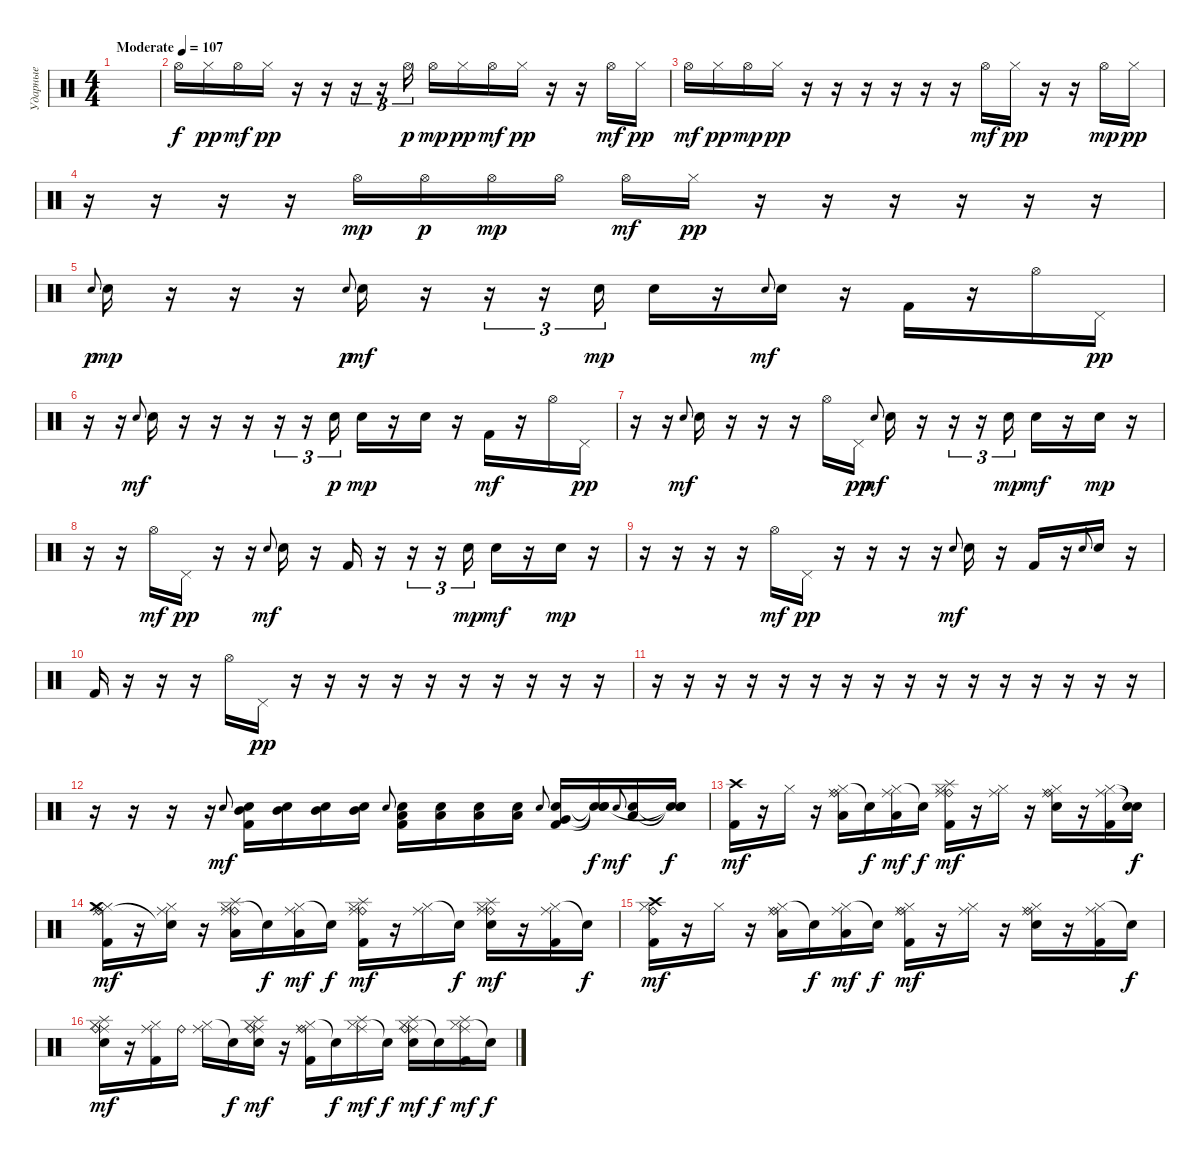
\track ("Ударные" "Ударные") {instrument percussion}
\staff {score}
\articulation defaults
\ts (4 4)
\tempo (107 "Moderate")
\clef neutral
\ks c
|
"Hi-Hat (open)".16 "Hi-Hat (closed)".16{dy pp} "Hi-Hat (open)".16{dy mf} "Hi-Hat (closed)".16{dy pp} r.16 r.16 r.16{tu (3 2)} r.16{tu (3 2)} "Hi-Hat (open)".16{tu (3 2) dy p} "Hi-Hat (open)".16{dy mp} "Hi-Hat (closed)".16{dy pp} "Hi-Hat (open)".16{dy mf} "Hi-Hat (closed)".16{dy pp} r.16 r.16 "Hi-Hat (open)".16{dy mf} "Hi-Hat (closed)".16{dy pp} |
"Hi-Hat (open)".16{dy mf} "Hi-Hat (closed)".16{dy pp} "Hi-Hat (open)".16{dy mp} "Hi-Hat (closed)".16{dy pp} r.16 r.16 r.16 r.16 r.16 r.16 "Hi-Hat (open)".16{dy mf} "Hi-Hat (closed)".16{dy pp} r.16 r.16 "Hi-Hat (open)".16{dy mp} "Hi-Hat (closed)".16{dy pp} |
r.16 r.16 r.16 r.16 "Hi-Hat (open)".16{dy mp} "Hi-Hat (open)".16{dy p} "Hi-Hat (open)".16{dy mp} "Hi-Hat (open)".16 "Hi-Hat (open)".16{dy mf} "Hi-Hat (closed)".16{dy pp} r.16 r.16 r.16 r.16 r.16 r.16 |
"Electric Snare (hit)".8{gr onbeat dy p} "Electric Snare (hit)".16{dy mp} r.16 r.16 r.16 "Electric Snare (hit)".8{gr onbeat dy p} "Electric Snare (hit)".16{dy mf} r.16 r.16{tu (3 2)} r.16{tu (3 2)} "Electric Snare (hit)".16{tu (3 2) dy mp} "Electric Snare (hit)".16 r.16 "Electric Snare (hit)".8{gr onbeat dy mf} "Electric Snare (hit)".16 r.16 "Kick (hit) 2".16 r.16 "Hi-Hat (open)".16 "Pedal Hi-Hat (hit)".16{dy pp} |
r.16 r.16 "Electric Snare (hit)".8{gr onbeat dy mf} "Electric Snare (hit)".16 r.16 r.16 r.16 r.16{tu (3 2)} r.16{tu (3 2)} "Electric Snare (hit)".16{tu (3 2) dy p} "Electric Snare (hit)".16{dy mp} r.16 "Electric Snare (hit)".16 r.16 "Kick (hit) 2".16{dy mf} r.16 "Hi-Hat (open)".16 "Pedal Hi-Hat (hit)".16{dy pp} |
r.16 r.16 "Electric Snare (hit)".8{gr onbeat dy mf} "Electric Snare (hit)".16 r.16 r.16 r.16 "Hi-Hat (open)".16 "Pedal Hi-Hat (hit)".16{dy pp} "Electric Snare (hit)".8{gr onbeat dy mf} "Electric Snare (hit)".16 r.16 r.16{tu (3 2)} r.16{tu (3 2)} "Electric Snare (hit)".16{tu (3 2) dy mp} "Electric Snare (hit)".16{dy mf} r.16 "Electric Snare (hit)".16{dy mp} r.16 |
r.16 r.16 "Hi-Hat (open)".16{dy mf} "Pedal Hi-Hat (hit)".16{dy pp} r.16 r.16 "Electric Snare (hit)".8{gr onbeat dy mf} "Electric Snare (hit)".16 r.16 "Kick (hit) 2".16 r.16 r.16{tu (3 2)} r.16{tu (3 2)} "Electric Snare (hit)".16{tu (3 2) dy mp} "Electric Snare (hit)".16{dy mf} r.16 "Electric Snare (hit)".16{dy mp} r.16 |
r.16 r.16 r.16 r.16 "Hi-Hat (open)".16{dy mf} "Pedal Hi-Hat (hit)".16{dy pp} r.16 r.16 r.16 r.16 "Electric Snare (hit)".8{gr onbeat dy mf} "Electric Snare (hit)".16 r.16 "Kick (hit) 2".16 r.16 "Electric Snare (hit)".8{gr onbeat} "Electric Snare (hit)".16 r.16 |
"Kick (hit) 2".16 r.16 r.16 r.16 "Hi-Hat (open)".16 "Pedal Hi-Hat (hit)".16{dy pp} r.16 r.16 r.16 r.16 r.16 r.16 r.16 r.16 r.16 r.16 |
r.16 r.16 r.16 r.16 r.16 r.16 r.16 r.16 r.16 r.16 r.16 r.16 r.16 r.16 r.16 r.16 |
r.16 r.16 r.16 r.16 "Electric Snare (hit)".8{gr onbeat dy mf} ("Electric Snare (hit)" "Mid Tom (hit)" "Kick (hit) 2").16 ("Electric Snare (hit)" "Mid Tom (hit)").16 ("Electric Snare (hit)" "Mid Tom (hit)").16 ("Electric Snare (hit)" "Mid Tom (hit)").16 "Electric Snare (hit)".8{gr onbeat} ("Electric Snare (hit)" "Low Tom (hit)" "Kick (hit) 2").16 ("Electric Snare (hit)" "Low Tom (hit)").16 ("Electric Snare (hit)" "Low Tom (hit)").16 ("Electric Snare (hit)" "Low Tom (hit)").16 "Electric Snare (hit)".8{gr onbeat} ("Electric Snare (hit)" "Very Low Tom (hit)" "Kick (hit) 2").16 ("Snare (hit)"{t} "Snare (hit)"{t} "Snare (hit)"{t}).16{dy f} "Electric Snare (hit)".8{gr onbeat dy mf} ("Electric Snare (hit)" "Low Floor Tom (hit)").16 ("Snare (hit)"{t} "Snare (hit)"{t} "Snare (hit)"{t}).16{dy f} |
("Crash high (hit)" "Kick (hit) 2").16{dy mf} r.16 "Hi-Hat (closed)".16 r.16 ("Hi-Hat (closed)" "Ride (bell)" "Low Tom (hit)" "Ride (middle)").16 "Snare (hit)"{t}.16{dy f} ("Hi-Hat (closed)" "Low Tom (hit)" "Ride (middle)").16{dy mf} "Snare (hit)"{t}.16{dy f} ("Hi-Hat (closed)" "Ride (bell)" "Splash (hit)" "Ride (middle)" "Kick (hit) 2").16{dy mf} r.16 ("Hi-Hat (closed)" "Ride (middle)").16 r.16 ("Hi-Hat (closed)" "Ride (bell)" "Electric Snare (hit)" "Ride (middle)").16 r.16 ("Hi-Hat (closed)" "Ride (middle)" "Kick (hit) 2").16 ("Snare (hit)"{t} "Snare (hit)"{t}).16{dy f} |
("Hi-Hat (closed)" "Ride (bell)" "Ride (middle)" "Crash medium (hit)" "Kick (hit) 2").16{dy mf} r.16 ("Hi-Hat (closed)" "Ride (middle)" "Snare (hit)"{t}).16 r.16 ("Hi-Hat (closed)" "Ride (bell)" "Low Tom (hit)" "Ride (middle)" "Splash (hit)").16 "Snare (hit)"{t}.16{dy f} ("Hi-Hat (closed)" "Low Tom (hit)" "Ride (middle)").16{dy mf} "Snare (hit)"{t}.16{dy f} ("Hi-Hat (closed)" "Ride (bell)" "Splash (hit)" "Ride (middle)" "Kick (hit) 2").16{dy mf} r.16 ("Hi-Hat (closed)" "Ride (middle)").16 "Snare (hit)"{t}.16{dy f} ("Hi-Hat (closed)" "Ride (bell)" "Electric Snare (hit)" "Ride (middle)" "Splash (hit)").16{dy mf} r.16 ("Hi-Hat (closed)" "Ride (middle)" "Kick (hit) 2").16 "Snare (hit)"{t}.16{dy f} |
("Hi-Hat (closed)" "Ride (bell)" "Crash high (hit)" "Kick (hit) 2").16{dy mf} r.16 "Hi-Hat (closed)".16 r.16 ("Hi-Hat (closed)" "Ride (bell)" "Low Tom (hit)" "Ride (middle)").16 "Snare (hit)"{t}.16{dy f} ("Hi-Hat (closed)" "Low Tom (hit)" "Ride (middle)").16{dy mf} "Snare (hit)"{t}.16{dy f} ("Hi-Hat (closed)" "Ride (bell)" "Ride (middle)" "Kick (hit) 2").16{dy mf} r.16 ("Hi-Hat (closed)" "Ride (middle)").16 r.16 ("Hi-Hat (closed)" "Ride (bell)" "Electric Snare (hit)" "Ride (middle)").16 r.16 ("Hi-Hat (closed)" "Ride (middle)" "Kick (hit) 2").16 "Snare (hit)"{t}.16{dy f} |
("Hi-Hat (closed)" "Splash (hit)" "Electric Snare (hit)" "Ride (middle)" "Ride (bell)").16{dy mf} r.16 ("Hi-Hat (closed)" "Ride (middle)" "Kick (hit) 2").16 "Ride (bell)".16 ("Hi-Hat (closed)" "Ride (middle)").16 "Snare (hit)"{t}.16{dy f} ("Hi-Hat (closed)" "Splash (hit)" "Electric Snare (hit)" "Ride (middle)" "Ride (bell)").16{dy mf} r.16 ("Hi-Hat (closed)" "Ride (middle)" "Ride (bell)" "Kick (hit) 2").16 "Snare (hit)"{t}.16{dy f} ("Hi-Hat (closed)" "Splash (hit)" "Ride (middle)").16{dy mf} "Snare (hit)"{t}.16{dy f} ("Hi-Hat (closed)" "Splash (hit)" "Electric Snare (hit)" "Ride (middle)" "Ride (bell)").16{dy mf} "Snare (hit)"{t}.16{dy f} ("Hi-Hat (closed)" "Splash (hit)" "Ride (middle)" "Kick (hit) 2").16{dy mf} "Snare (hit)"{t}.16{dy f}
